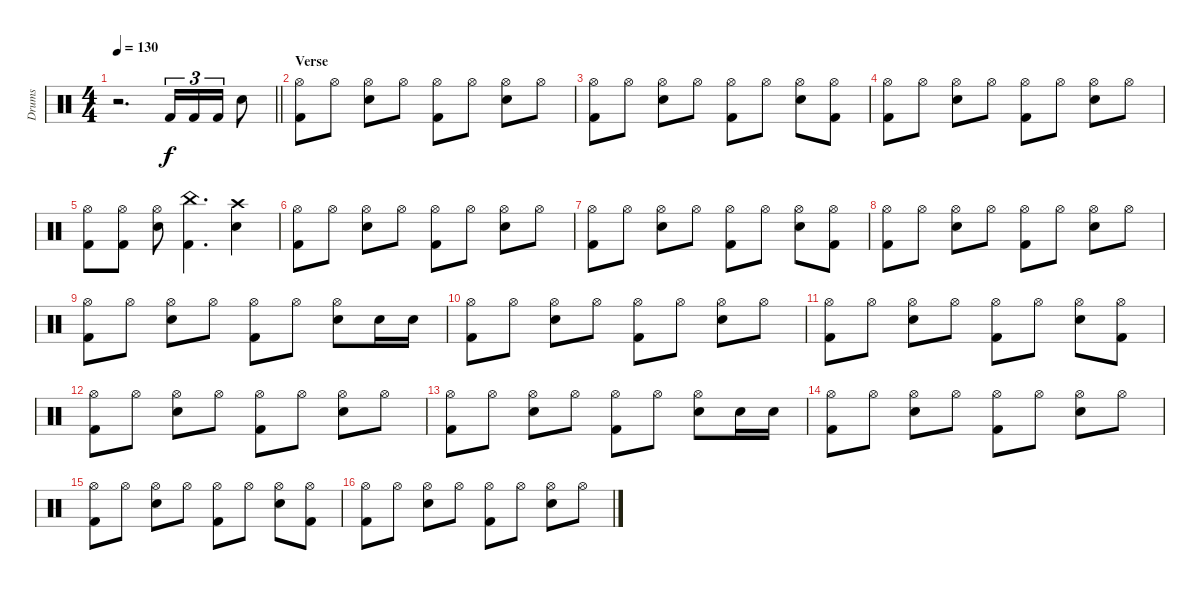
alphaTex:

\track ("Drums" "Drums") {instrument percussion}
\staff {score}
\articulation defaults
\ts (4 4)
\tempo 130
\clef neutral
\barLineRight lightlight
\ks c
r.2{d dy f} "Kick (hit) 2".16{tu (3 2)} "Kick (hit) 2".16{tu (3 2)} "Kick (hit) 2".16{tu (3 2)} "Snare (hit) 2".8 |
\section ("" "Verse")
("Hi-Hat (open)" "Kick (hit) 2").8 "Hi-Hat (open)".8 ("Hi-Hat (open)" "Snare (hit) 2").8 "Hi-Hat (open)".8 ("Hi-Hat (open)" "Kick (hit) 2").8 "Hi-Hat (open)".8 ("Hi-Hat (open)" "Snare (hit) 2").8 "Hi-Hat (open)".8 |
("Hi-Hat (open)" "Kick (hit) 2").8 "Hi-Hat (open)".8 ("Hi-Hat (open)" "Snare (hit) 2").8 "Hi-Hat (open)".8 ("Hi-Hat (open)" "Kick (hit) 2").8 "Hi-Hat (open)".8 ("Hi-Hat (open)" "Snare (hit) 2").8 ("Hi-Hat (open)" "Kick (hit) 2").8 |
("Hi-Hat (open)" "Kick (hit) 2").8 "Hi-Hat (open)".8 ("Hi-Hat (open)" "Snare (hit) 2").8 "Hi-Hat (open)".8 ("Hi-Hat (open)" "Kick (hit) 2").8 "Hi-Hat (open)".8 ("Hi-Hat (open)" "Snare (hit) 2").8 "Hi-Hat (open)".8 |
("Hi-Hat (open)" "Kick (hit) 2").8 ("Hi-Hat (open)" "Kick (hit) 2").8 ("Hi-Hat (open)" "Snare (hit) 2").8 ("China (hit)" "Kick (hit) 2").4{d} ("Crash high (hit)" "Snare (hit) 2").4 |
("Hi-Hat (open)" "Kick (hit) 2").8 "Hi-Hat (open)".8 ("Hi-Hat (open)" "Snare (hit) 2").8 "Hi-Hat (open)".8 ("Hi-Hat (open)" "Kick (hit) 2").8 "Hi-Hat (open)".8 ("Hi-Hat (open)" "Snare (hit) 2").8 "Hi-Hat (open)".8 |
("Hi-Hat (open)" "Kick (hit) 2").8 "Hi-Hat (open)".8 ("Hi-Hat (open)" "Snare (hit) 2").8 "Hi-Hat (open)".8 ("Hi-Hat (open)" "Kick (hit) 2").8 "Hi-Hat (open)".8 ("Hi-Hat (open)" "Snare (hit) 2").8 ("Hi-Hat (open)" "Kick (hit) 2").8 |
("Hi-Hat (open)" "Kick (hit) 2").8 "Hi-Hat (open)".8 ("Hi-Hat (open)" "Snare (hit) 2").8 "Hi-Hat (open)".8 ("Hi-Hat (open)" "Kick (hit) 2").8 "Hi-Hat (open)".8 ("Hi-Hat (open)" "Snare (hit) 2").8 "Hi-Hat (open)".8 |
("Hi-Hat (open)" "Kick (hit) 2").8 "Hi-Hat (open)".8 ("Hi-Hat (open)" "Snare (hit) 2").8 "Hi-Hat (open)".8 ("Hi-Hat (open)" "Kick (hit) 2").8 "Hi-Hat (open)".8 ("Hi-Hat (open)" "Snare (hit) 2").8 "Snare (hit) 2".16 "Snare (hit) 2".16 |
("Hi-Hat (open)" "Kick (hit) 2").8 "Hi-Hat (open)".8 ("Hi-Hat (open)" "Snare (hit) 2").8 "Hi-Hat (open)".8 ("Hi-Hat (open)" "Kick (hit) 2").8 "Hi-Hat (open)".8 ("Hi-Hat (open)" "Snare (hit) 2").8 "Hi-Hat (open)".8 |
("Hi-Hat (open)" "Kick (hit) 2").8 "Hi-Hat (open)".8 ("Hi-Hat (open)" "Snare (hit) 2").8 "Hi-Hat (open)".8 ("Hi-Hat (open)" "Kick (hit) 2").8 "Hi-Hat (open)".8 ("Hi-Hat (open)" "Snare (hit) 2").8 ("Hi-Hat (open)" "Kick (hit) 2").8 |
("Hi-Hat (open)" "Kick (hit) 2").8 "Hi-Hat (open)".8 ("Hi-Hat (open)" "Snare (hit) 2").8 "Hi-Hat (open)".8 ("Hi-Hat (open)" "Kick (hit) 2").8 "Hi-Hat (open)".8 ("Hi-Hat (open)" "Snare (hit) 2").8 "Hi-Hat (open)".8 |
("Hi-Hat (open)" "Kick (hit) 2").8 "Hi-Hat (open)".8 ("Hi-Hat (open)" "Snare (hit) 2").8 "Hi-Hat (open)".8 ("Hi-Hat (open)" "Kick (hit) 2").8 "Hi-Hat (open)".8 ("Hi-Hat (open)" "Snare (hit) 2").8 "Snare (hit) 2".16 "Snare (hit) 2".16 |
("Hi-Hat (open)" "Kick (hit) 2").8 "Hi-Hat (open)".8 ("Hi-Hat (open)" "Snare (hit) 2").8 "Hi-Hat (open)".8 ("Hi-Hat (open)" "Kick (hit) 2").8 "Hi-Hat (open)".8 ("Hi-Hat (open)" "Snare (hit) 2").8 "Hi-Hat (open)".8 |
("Hi-Hat (open)" "Kick (hit) 2").8 "Hi-Hat (open)".8 ("Hi-Hat (open)" "Snare (hit) 2").8 "Hi-Hat (open)".8 ("Hi-Hat (open)" "Kick (hit) 2").8 "Hi-Hat (open)".8 ("Hi-Hat (open)" "Snare (hit) 2").8 ("Hi-Hat (open)" "Kick (hit) 2").8 |
("Hi-Hat (open)" "Kick (hit) 2").8 "Hi-Hat (open)".8 ("Hi-Hat (open)" "Snare (hit) 2").8 "Hi-Hat (open)".8 ("Hi-Hat (open)" "Kick (hit) 2").8 "Hi-Hat (open)".8 ("Hi-Hat (open)" "Snare (hit) 2").8 "Hi-Hat (open)".8
